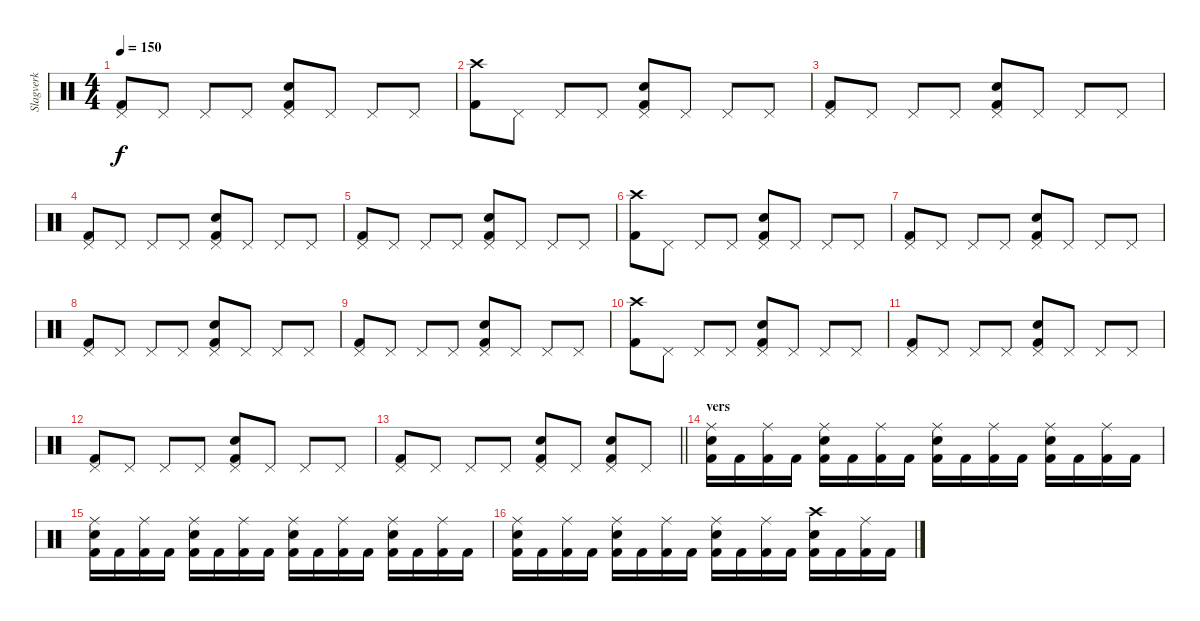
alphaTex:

\track ("Slagverk" "Slagverk") {instrument percussion}
\staff {score}
\articulation defaults
\ts (4 4)
\tempo 150
\clef neutral
\ks c
("Pedal Hi-Hat (hit)" "Kick (hit) 2").8{dy f} "Pedal Hi-Hat (hit)".8 "Pedal Hi-Hat (hit)".8 "Pedal Hi-Hat (hit)".8 ("Pedal Hi-Hat (hit)" "Electric Snare (hit)" "Kick (hit) 2").8 "Pedal Hi-Hat (hit)".8 "Pedal Hi-Hat (hit)".8 "Pedal Hi-Hat (hit)".8 |
("Crash high (hit)" "Kick (hit) 2").8 "Pedal Hi-Hat (hit)".8 "Pedal Hi-Hat (hit)".8 "Pedal Hi-Hat (hit)".8 ("Pedal Hi-Hat (hit)" "Electric Snare (hit)" "Kick (hit) 2").8 "Pedal Hi-Hat (hit)".8 "Pedal Hi-Hat (hit)".8 "Pedal Hi-Hat (hit)".8 |
("Pedal Hi-Hat (hit)" "Kick (hit) 2").8 "Pedal Hi-Hat (hit)".8 "Pedal Hi-Hat (hit)".8 "Pedal Hi-Hat (hit)".8 ("Pedal Hi-Hat (hit)" "Electric Snare (hit)" "Kick (hit) 2").8 "Pedal Hi-Hat (hit)".8 "Pedal Hi-Hat (hit)".8 "Pedal Hi-Hat (hit)".8 |
("Pedal Hi-Hat (hit)" "Kick (hit) 2").8 "Pedal Hi-Hat (hit)".8 "Pedal Hi-Hat (hit)".8 "Pedal Hi-Hat (hit)".8 ("Pedal Hi-Hat (hit)" "Electric Snare (hit)" "Kick (hit) 2").8 "Pedal Hi-Hat (hit)".8 "Pedal Hi-Hat (hit)".8 "Pedal Hi-Hat (hit)".8 |
("Pedal Hi-Hat (hit)" "Kick (hit) 2").8 "Pedal Hi-Hat (hit)".8 "Pedal Hi-Hat (hit)".8 "Pedal Hi-Hat (hit)".8 ("Pedal Hi-Hat (hit)" "Electric Snare (hit)" "Kick (hit) 2").8 "Pedal Hi-Hat (hit)".8 "Pedal Hi-Hat (hit)".8 "Pedal Hi-Hat (hit)".8 |
("Crash high (hit)" "Kick (hit) 2").8 "Pedal Hi-Hat (hit)".8 "Pedal Hi-Hat (hit)".8 "Pedal Hi-Hat (hit)".8 ("Pedal Hi-Hat (hit)" "Electric Snare (hit)" "Kick (hit) 2").8 "Pedal Hi-Hat (hit)".8 "Pedal Hi-Hat (hit)".8 "Pedal Hi-Hat (hit)".8 |
("Pedal Hi-Hat (hit)" "Kick (hit) 2").8 "Pedal Hi-Hat (hit)".8 "Pedal Hi-Hat (hit)".8 "Pedal Hi-Hat (hit)".8 ("Pedal Hi-Hat (hit)" "Electric Snare (hit)" "Kick (hit) 2").8 "Pedal Hi-Hat (hit)".8 "Pedal Hi-Hat (hit)".8 "Pedal Hi-Hat (hit)".8 |
("Pedal Hi-Hat (hit)" "Kick (hit) 2").8 "Pedal Hi-Hat (hit)".8 "Pedal Hi-Hat (hit)".8 "Pedal Hi-Hat (hit)".8 ("Pedal Hi-Hat (hit)" "Electric Snare (hit)" "Kick (hit) 2").8 "Pedal Hi-Hat (hit)".8 "Pedal Hi-Hat (hit)".8 "Pedal Hi-Hat (hit)".8 |
("Pedal Hi-Hat (hit)" "Kick (hit) 2").8 "Pedal Hi-Hat (hit)".8 "Pedal Hi-Hat (hit)".8 "Pedal Hi-Hat (hit)".8 ("Pedal Hi-Hat (hit)" "Electric Snare (hit)" "Kick (hit) 2").8 "Pedal Hi-Hat (hit)".8 "Pedal Hi-Hat (hit)".8 "Pedal Hi-Hat (hit)".8 |
("Crash high (hit)" "Kick (hit) 2").8 "Pedal Hi-Hat (hit)".8 "Pedal Hi-Hat (hit)".8 "Pedal Hi-Hat (hit)".8 ("Pedal Hi-Hat (hit)" "Electric Snare (hit)" "Kick (hit) 2").8 "Pedal Hi-Hat (hit)".8 "Pedal Hi-Hat (hit)".8 "Pedal Hi-Hat (hit)".8 |
("Pedal Hi-Hat (hit)" "Kick (hit) 2").8 "Pedal Hi-Hat (hit)".8 "Pedal Hi-Hat (hit)".8 "Pedal Hi-Hat (hit)".8 ("Pedal Hi-Hat (hit)" "Electric Snare (hit)" "Kick (hit) 2").8 "Pedal Hi-Hat (hit)".8 "Pedal Hi-Hat (hit)".8 "Pedal Hi-Hat (hit)".8 |
("Pedal Hi-Hat (hit)" "Kick (hit) 2").8 "Pedal Hi-Hat (hit)".8 "Pedal Hi-Hat (hit)".8 "Pedal Hi-Hat (hit)".8 ("Pedal Hi-Hat (hit)" "Electric Snare (hit)" "Kick (hit) 2").8 "Pedal Hi-Hat (hit)".8 "Pedal Hi-Hat (hit)".8 "Pedal Hi-Hat (hit)".8 |
\barLineRight lightlight
("Pedal Hi-Hat (hit)" "Kick (hit) 2").8 "Pedal Hi-Hat (hit)".8 "Pedal Hi-Hat (hit)".8 "Pedal Hi-Hat (hit)".8 ("Pedal Hi-Hat (hit)" "Electric Snare (hit)" "Kick (hit) 2").8 "Pedal Hi-Hat (hit)".8 ("Pedal Hi-Hat (hit)" "Electric Snare (hit)" "Kick (hit) 2").8 "Pedal Hi-Hat (hit)".8 |
\section ("" "vers")
("Ride (middle)" "Electric Snare (hit)" "Kick (hit) 2").16 "Kick (hit) 2".16 ("Ride (middle)" "Kick (hit) 2").16 "Kick (hit) 2".16 ("Ride (middle)" "Electric Snare (hit)" "Kick (hit) 2").16 "Kick (hit) 2".16 ("Ride (middle)" "Kick (hit) 2").16 "Kick (hit) 2".16 ("Ride (middle)" "Electric Snare (hit)" "Kick (hit) 2").16 "Kick (hit) 2".16 ("Ride (middle)" "Kick (hit) 2").16 "Kick (hit) 2".16 ("Ride (middle)" "Electric Snare (hit)" "Kick (hit) 2").16 "Kick (hit) 2".16 ("Ride (middle)" "Kick (hit) 2").16 "Kick (hit) 2".16 |
("Ride (middle)" "Electric Snare (hit)" "Kick (hit) 2").16 "Kick (hit) 2".16 ("Ride (middle)" "Kick (hit) 2").16 "Kick (hit) 2".16 ("Ride (middle)" "Electric Snare (hit)" "Kick (hit) 2").16 "Kick (hit) 2".16 ("Ride (middle)" "Kick (hit) 2").16 "Kick (hit) 2".16 ("Ride (middle)" "Electric Snare (hit)" "Kick (hit) 2").16 "Kick (hit) 2".16 ("Ride (middle)" "Kick (hit) 2").16 "Kick (hit) 2".16 ("Ride (middle)" "Electric Snare (hit)" "Kick (hit) 2").16 "Kick (hit) 2".16 ("Ride (middle)" "Kick (hit) 2").16 "Kick (hit) 2".16 |
("Ride (middle)" "Electric Snare (hit)" "Kick (hit) 2").16 "Kick (hit) 2".16 ("Ride (middle)" "Kick (hit) 2").16 "Kick (hit) 2".16 ("Ride (middle)" "Electric Snare (hit)" "Kick (hit) 2").16 "Kick (hit) 2".16 ("Ride (middle)" "Kick (hit) 2").16 "Kick (hit) 2".16 ("Ride (middle)" "Electric Snare (hit)" "Kick (hit) 2").16 "Kick (hit) 2".16 ("Ride (middle)" "Kick (hit) 2").16 "Kick (hit) 2".16 ("Crash high (hit)" "Electric Snare (hit)" "Kick (hit) 2").16 "Kick (hit) 2".16 ("Ride (middle)" "Kick (hit) 2").16 "Kick (hit) 2".16
